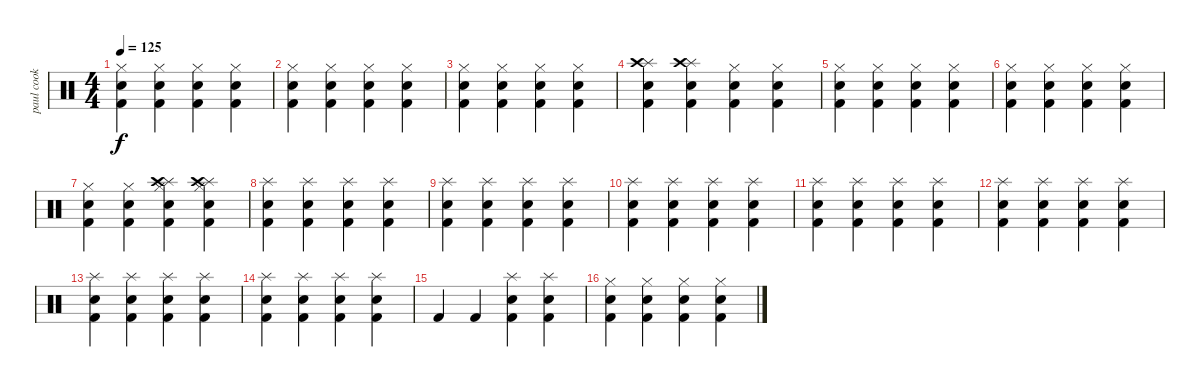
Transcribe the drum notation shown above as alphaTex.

\track ("paul cook" "paul cook") {instrument percussion}
\staff {score}
\articulation defaults
\ts (4 4)
\tempo 125
\clef neutral
\ks c
("Hi-Hat (closed)" "Kick (hit) 2" "Snare (hit) 2").4{dy f} ("Hi-Hat (closed)" "Kick (hit) 2" "Snare (hit) 2").4 ("Hi-Hat (closed)" "Kick (hit) 2" "Snare (hit) 2").4 ("Hi-Hat (closed)" "Kick (hit) 2" "Snare (hit) 2").4 |
("Hi-Hat (closed)" "Kick (hit) 2" "Snare (hit) 2").4 ("Hi-Hat (closed)" "Kick (hit) 2" "Snare (hit) 2").4 ("Hi-Hat (closed)" "Kick (hit) 2" "Snare (hit) 2").4 ("Hi-Hat (closed)" "Kick (hit) 2" "Snare (hit) 2").4 |
("Hi-Hat (closed)" "Kick (hit) 2" "Snare (hit) 2").4 ("Hi-Hat (closed)" "Kick (hit) 2" "Snare (hit) 2").4 ("Hi-Hat (closed)" "Kick (hit) 2" "Snare (hit) 2").4 ("Hi-Hat (closed)" "Kick (hit) 2" "Snare (hit) 2").4 |
("Splash (hit)" "Kick (hit) 2" "Snare (hit) 2" "Crash high (hit)").4 ("Splash (hit)" "Kick (hit) 2" "Snare (hit) 2" "Crash high (hit)").4 ("Hi-Hat (closed)" "Kick (hit) 2" "Snare (hit) 2").4 ("Hi-Hat (closed)" "Kick (hit) 2" "Snare (hit) 2").4 |
("Hi-Hat (closed)" "Kick (hit) 2" "Snare (hit) 2").4 ("Hi-Hat (closed)" "Kick (hit) 2" "Snare (hit) 2").4 ("Hi-Hat (closed)" "Kick (hit) 2" "Snare (hit) 2").4 ("Hi-Hat (closed)" "Kick (hit) 2" "Snare (hit) 2").4 |
("Hi-Hat (closed)" "Kick (hit) 2" "Snare (hit) 2").4 ("Hi-Hat (closed)" "Kick (hit) 2" "Snare (hit) 2").4 ("Hi-Hat (closed)" "Kick (hit) 2" "Snare (hit) 2").4 ("Hi-Hat (closed)" "Kick (hit) 2" "Snare (hit) 2").4 |
("Hi-Hat (closed)" "Kick (hit) 2" "Snare (hit) 2").4 ("Hi-Hat (closed)" "Kick (hit) 2" "Snare (hit) 2").4 ("Splash (hit)" "Hi-Hat (closed)" "Kick (hit) 2" "Snare (hit) 2" "Crash high (hit)").4 ("Splash (hit)" "Hi-Hat (closed)" "Kick (hit) 2" "Snare (hit) 2" "Crash high (hit)").4 |
("Kick (hit) 2" "Snare (hit) 2" "Splash (hit)").4 ("Kick (hit) 2" "Snare (hit) 2" "Splash (hit)").4 ("Kick (hit) 2" "Snare (hit) 2" "Splash (hit)").4 ("Kick (hit) 2" "Snare (hit) 2" "Splash (hit)").4 |
("Kick (hit) 2" "Snare (hit) 2" "Splash (hit)").4 ("Kick (hit) 2" "Snare (hit) 2" "Splash (hit)").4 ("Kick (hit) 2" "Snare (hit) 2" "Splash (hit)").4 ("Kick (hit) 2" "Snare (hit) 2" "Splash (hit)").4 |
("Kick (hit) 2" "Snare (hit) 2" "Splash (hit)").4 ("Kick (hit) 2" "Snare (hit) 2" "Splash (hit)").4 ("Kick (hit) 2" "Snare (hit) 2" "Splash (hit)").4 ("Kick (hit) 2" "Snare (hit) 2" "Splash (hit)").4 |
("Kick (hit) 2" "Snare (hit) 2" "Splash (hit)").4 ("Kick (hit) 2" "Snare (hit) 2" "Splash (hit)").4 ("Kick (hit) 2" "Snare (hit) 2" "Splash (hit)").4 ("Kick (hit) 2" "Snare (hit) 2" "Splash (hit)").4 |
("Kick (hit) 2" "Snare (hit) 2" "Splash (hit)").4 ("Kick (hit) 2" "Snare (hit) 2" "Splash (hit)").4 ("Kick (hit) 2" "Snare (hit) 2" "Splash (hit)").4 ("Kick (hit) 2" "Snare (hit) 2" "Splash (hit)").4 |
("Kick (hit) 2" "Snare (hit) 2" "Splash (hit)").4 ("Kick (hit) 2" "Snare (hit) 2" "Splash (hit)").4 ("Kick (hit) 2" "Snare (hit) 2" "Splash (hit)").4 ("Kick (hit) 2" "Snare (hit) 2" "Splash (hit)").4 |
("Kick (hit) 2" "Snare (hit) 2" "Splash (hit)").4 ("Kick (hit) 2" "Snare (hit) 2" "Splash (hit)").4 ("Kick (hit) 2" "Snare (hit) 2" "Splash (hit)").4 ("Kick (hit) 2" "Snare (hit) 2" "Splash (hit)").4 |
"Kick (hit) 2".4 "Kick (hit) 2".4 ("Snare (hit) 2" "Splash (hit)" "Kick (hit) 2").4 ("Snare (hit) 2" "Splash (hit)" "Kick (hit) 2").4 |
("Hi-Hat (closed)" "Kick (hit) 2" "Snare (hit) 2").4 ("Hi-Hat (closed)" "Kick (hit) 2" "Snare (hit) 2").4 ("Hi-Hat (closed)" "Kick (hit) 2" "Snare (hit) 2").4 ("Hi-Hat (closed)" "Kick (hit) 2" "Snare (hit) 2").4
